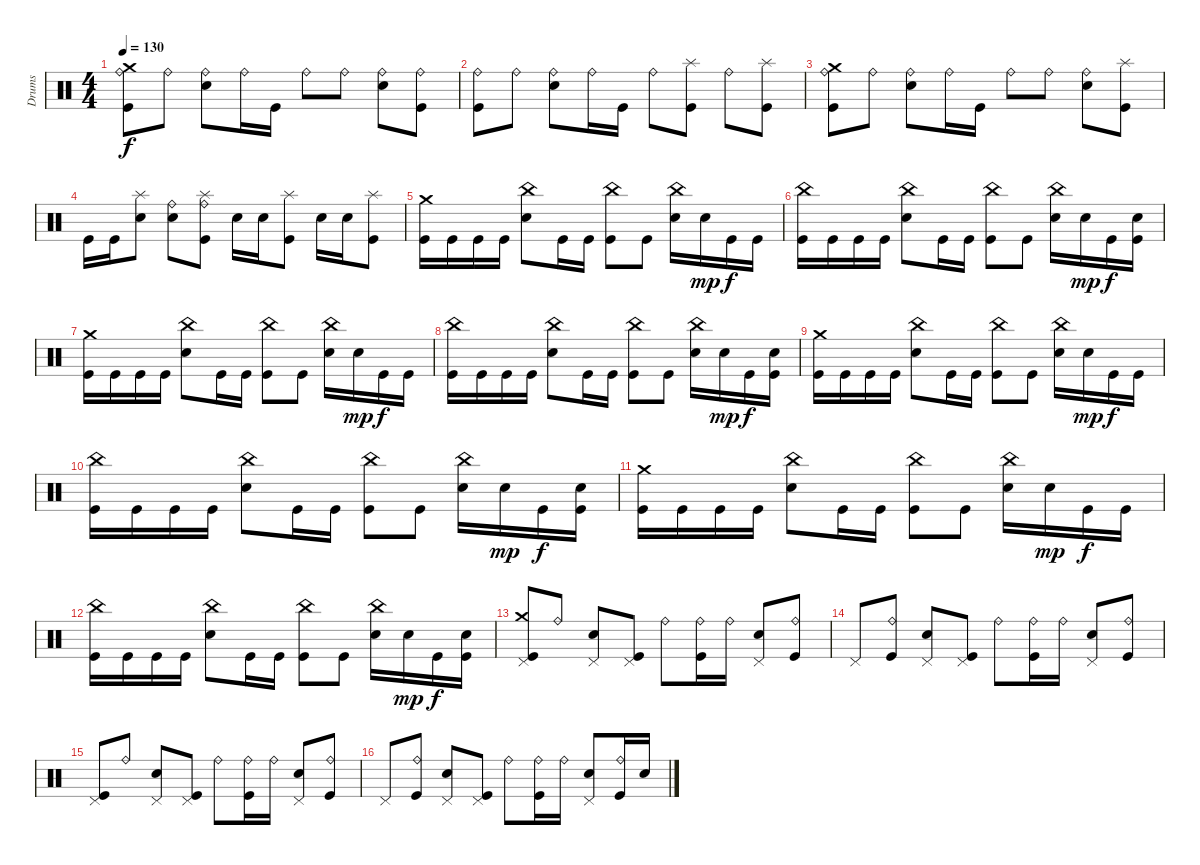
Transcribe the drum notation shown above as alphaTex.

\track ("Drums" "Drums") {instrument percussion}
\staff {score}
\articulation defaults
\ts (4 4)
\tempo 130
\clef neutral
\ks c
("Kick (hit)" "Crash medium (hit)" "Ride (bell)").8{dy f} "Ride (bell)".8 ("Electric Snare (hit)" "Ride (bell)").8 "Ride (bell)".16 "Kick (hit)".16 "Ride (bell)".8 "Ride (bell)".8 ("Electric Snare (hit)" "Ride (bell)").8 ("Kick (hit)" "Ride (bell)").8 |
("Kick (hit)" "Ride (bell)").8 "Ride (bell)".8 ("Electric Snare (hit)" "Ride (bell)").8 "Ride (bell)".16 "Kick (hit)".16 "Ride (bell)".8 ("Kick (hit)" "Splash (hit)").8 "Ride (bell)".8 ("Kick (hit)" "Splash (hit)").8 |
("Kick (hit)" "Crash medium (hit)" "Ride (bell)").8 "Ride (bell)".8 ("Electric Snare (hit)" "Ride (bell)").8 "Ride (bell)".16 "Kick (hit)".16 "Ride (bell)".8 "Ride (bell)".8 ("Electric Snare (hit)" "Ride (bell)").8 ("Kick (hit)" "Splash (hit)").8 |
"Kick (hit)".16 "Kick (hit)".16 ("Electric Snare (hit)" "Splash (hit)").8 ("Electric Snare (hit)" "Ride (bell)").8 ("Kick (hit)" "Splash (hit)" "Ride (bell)").8 "Electric Snare (hit)".16 "Electric Snare (hit)".16 ("Kick (hit)" "Splash (hit)").8 "Electric Snare (hit)".16 "Electric Snare (hit)".16 ("Kick (hit)" "Splash (hit)").8 |
("Kick (hit)" "Crash medium (hit)").16 "Kick (hit)".16 "Kick (hit)".16 "Kick (hit)".16 ("Electric Snare (hit)" "China (hit)").8 "Kick (hit)".16 "Kick (hit)".16 ("Kick (hit)" "China (hit)").8 "Kick (hit)".8 ("Electric Snare (hit)" "China (hit)").16 "Electric Snare (hit)".16{dy mp} "Kick (hit)".16{dy f} "Kick (hit)".16 |
("Kick (hit)" "China (hit)").16 "Kick (hit)".16 "Kick (hit)".16 "Kick (hit)".16 ("Electric Snare (hit)" "China (hit)").8 "Kick (hit)".16 "Kick (hit)".16 ("Kick (hit)" "China (hit)").8 "Kick (hit)".8 ("Electric Snare (hit)" "China (hit)").16 "Electric Snare (hit)".16{dy mp} "Kick (hit)".16{dy f} ("Kick (hit)" "Electric Snare (hit)").16 |
("Kick (hit)" "Crash medium (hit)").16 "Kick (hit)".16 "Kick (hit)".16 "Kick (hit)".16 ("Electric Snare (hit)" "China (hit)").8 "Kick (hit)".16 "Kick (hit)".16 ("Kick (hit)" "China (hit)").8 "Kick (hit)".8 ("Electric Snare (hit)" "China (hit)").16 "Electric Snare (hit)".16{dy mp} "Kick (hit)".16{dy f} "Kick (hit)".16 |
("Kick (hit)" "China (hit)").16 "Kick (hit)".16 "Kick (hit)".16 "Kick (hit)".16 ("Electric Snare (hit)" "China (hit)").8 "Kick (hit)".16 "Kick (hit)".16 ("Kick (hit)" "China (hit)").8 "Kick (hit)".8 ("Electric Snare (hit)" "China (hit)").16 "Electric Snare (hit)".16{dy mp} "Kick (hit)".16{dy f} ("Kick (hit)" "Electric Snare (hit)").16 |
("Kick (hit)" "Crash medium (hit)").16 "Kick (hit)".16 "Kick (hit)".16 "Kick (hit)".16 ("Electric Snare (hit)" "China (hit)").8 "Kick (hit)".16 "Kick (hit)".16 ("Kick (hit)" "China (hit)").8 "Kick (hit)".8 ("Electric Snare (hit)" "China (hit)").16 "Electric Snare (hit)".16{dy mp} "Kick (hit)".16{dy f} "Kick (hit)".16 |
("Kick (hit)" "China (hit)").16 "Kick (hit)".16 "Kick (hit)".16 "Kick (hit)".16 ("Electric Snare (hit)" "China (hit)").8 "Kick (hit)".16 "Kick (hit)".16 ("Kick (hit)" "China (hit)").8 "Kick (hit)".8 ("Electric Snare (hit)" "China (hit)").16 "Electric Snare (hit)".16{dy mp} "Kick (hit)".16{dy f} ("Kick (hit)" "Electric Snare (hit)").16 |
("Kick (hit)" "Crash medium (hit)").16 "Kick (hit)".16 "Kick (hit)".16 "Kick (hit)".16 ("Electric Snare (hit)" "China (hit)").8 "Kick (hit)".16 "Kick (hit)".16 ("Kick (hit)" "China (hit)").8 "Kick (hit)".8 ("Electric Snare (hit)" "China (hit)").16 "Electric Snare (hit)".16{dy mp} "Kick (hit)".16{dy f} "Kick (hit)".16 |
("Kick (hit)" "China (hit)").16 "Kick (hit)".16 "Kick (hit)".16 "Kick (hit)".16 ("Electric Snare (hit)" "China (hit)").8 "Kick (hit)".16 "Kick (hit)".16 ("Kick (hit)" "China (hit)").8 "Kick (hit)".8 ("Electric Snare (hit)" "China (hit)").16 "Electric Snare (hit)".16{dy mp} "Kick (hit)".16{dy f} ("Kick (hit)" "Electric Snare (hit)").16 |
("Kick (hit)" "Crash medium (hit)" "Pedal Hi-Hat (hit)").8 "Ride (bell)".8 ("Electric Snare (hit)" "Pedal Hi-Hat (hit)").8 ("Kick (hit)" "Pedal Hi-Hat (hit)").8 "Ride (bell)".8 ("Kick (hit)" "Ride (bell)").16 "Ride (bell)".16 ("Electric Snare (hit)" "Pedal Hi-Hat (hit)").8 ("Kick (hit)" "Ride (bell)").8 |
"Pedal Hi-Hat (hit)".8 ("Kick (hit)" "Ride (bell)").8 ("Electric Snare (hit)" "Pedal Hi-Hat (hit)").8 ("Kick (hit)" "Pedal Hi-Hat (hit)").8 "Ride (bell)".8 ("Kick (hit)" "Ride (bell)").16 "Ride (bell)".16 ("Electric Snare (hit)" "Pedal Hi-Hat (hit)").8 ("Kick (hit)" "Ride (bell)").8 |
("Kick (hit)" "Pedal Hi-Hat (hit)").8 "Ride (bell)".8 ("Electric Snare (hit)" "Pedal Hi-Hat (hit)").8 ("Kick (hit)" "Pedal Hi-Hat (hit)").8 "Ride (bell)".8 ("Kick (hit)" "Ride (bell)").16 "Ride (bell)".16 ("Electric Snare (hit)" "Pedal Hi-Hat (hit)").8 ("Kick (hit)" "Ride (bell)").8 |
"Pedal Hi-Hat (hit)".8 ("Kick (hit)" "Ride (bell)").8 ("Electric Snare (hit)" "Pedal Hi-Hat (hit)").8 ("Kick (hit)" "Pedal Hi-Hat (hit)").8 "Ride (bell)".8 ("Kick (hit)" "Ride (bell)").16 "Ride (bell)".16 ("Electric Snare (hit)" "Pedal Hi-Hat (hit)").8 ("Kick (hit)" "Ride (bell)").16 "Electric Snare (hit)".16
